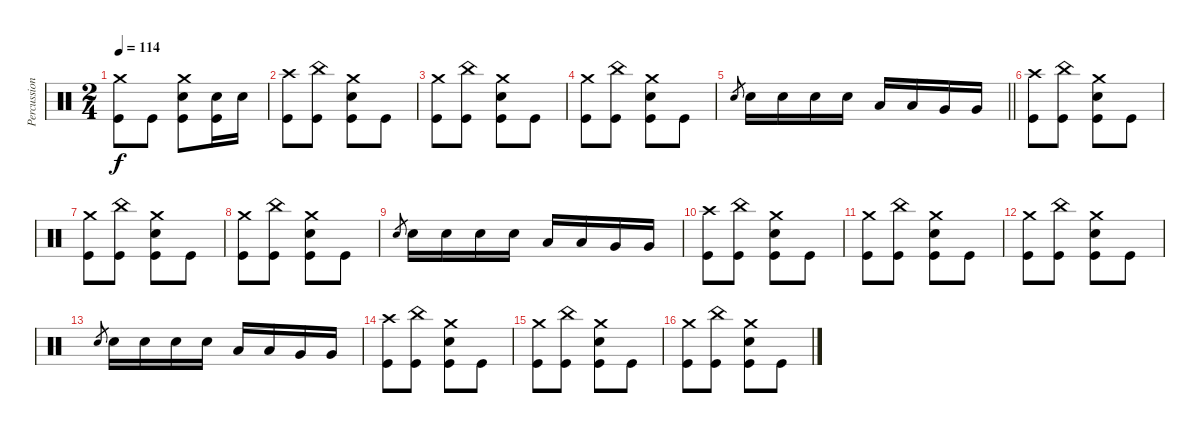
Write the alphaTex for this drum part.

\track ("Percussion" "Percussion") {instrument percussion}
\staff {score}
\articulation defaults
\ts (2 4)
\tempo 114
\clef neutral
\ks c
("Crash medium (hit)" "Kick (hit)").8{dy f} "Kick (hit)".8 ("Crash medium (hit)" "Electric Snare (hit)" "Kick (hit)").8 ("Electric Snare (hit)" "Kick (hit)").16 "Electric Snare (hit)".16 |
("Crash high (hit)" "Kick (hit)").8 ("China (hit)" "Kick (hit)").8 ("Crash medium (hit)" "Electric Snare (hit)" "Kick (hit)").8 "Kick (hit)".8 |
("Crash medium (hit)" "Kick (hit)").8 ("China (hit)" "Kick (hit)").8 ("Crash medium (hit)" "Electric Snare (hit)" "Kick (hit)").8 "Kick (hit)".8 |
("Crash medium (hit)" "Kick (hit)").8 ("China (hit)" "Kick (hit)").8 ("Crash medium (hit)" "Electric Snare (hit)" "Kick (hit)").8 "Kick (hit)".8 |
\barLineRight lightlight "Electric Snare (hit)".8{gr} "Electric Snare (hit)".16 "Electric Snare (hit)".16 "Electric Snare (hit)".16 "Electric Snare (hit)".16 "Low Tom (hit)".16 "Low Tom (hit)".16 "Very Low Tom (hit)".16 "Very Low Tom (hit)".16
|
\section ("" "")
("Crash high (hit)" "Kick (hit)").8 ("China (hit)" "Kick (hit)").8 ("Crash medium (hit)" "Electric Snare (hit)" "Kick (hit)").8 "Kick (hit)".8 |
("Crash medium (hit)" "Kick (hit)").8 ("China (hit)" "Kick (hit)").8 ("Crash medium (hit)" "Electric Snare (hit)" "Kick (hit)").8 "Kick (hit)".8 |
("Crash medium (hit)" "Kick (hit)").8 ("China (hit)" "Kick (hit)").8 ("Crash medium (hit)" "Electric Snare (hit)" "Kick (hit)").8 "Kick (hit)".8 |
"Electric Snare (hit)".8{gr} "Electric Snare (hit)".16 "Electric Snare (hit)".16 "Electric Snare (hit)".16 "Electric Snare (hit)".16 "Low Tom (hit)".16 "Low Tom (hit)".16 "Very Low Tom (hit)".16 "Very Low Tom (hit)".16 |
("Crash high (hit)" "Kick (hit)").8 ("China (hit)" "Kick (hit)").8 ("Crash medium (hit)" "Electric Snare (hit)" "Kick (hit)").8 "Kick (hit)".8 |
("Crash medium (hit)" "Kick (hit)").8 ("China (hit)" "Kick (hit)").8 ("Crash medium (hit)" "Electric Snare (hit)" "Kick (hit)").8 "Kick (hit)".8 |
("Crash medium (hit)" "Kick (hit)").8 ("China (hit)" "Kick (hit)").8 ("Crash medium (hit)" "Electric Snare (hit)" "Kick (hit)").8 "Kick (hit)".8 |
"Electric Snare (hit)".8{gr} "Electric Snare (hit)".16 "Electric Snare (hit)".16 "Electric Snare (hit)".16 "Electric Snare (hit)".16 "Low Tom (hit)".16 "Low Tom (hit)".16 "Very Low Tom (hit)".16 "Very Low Tom (hit)".16 |
("Crash high (hit)" "Kick (hit)").8 ("China (hit)" "Kick (hit)").8 ("Crash medium (hit)" "Electric Snare (hit)" "Kick (hit)").8 "Kick (hit)".8 |
("Crash medium (hit)" "Kick (hit)").8 ("China (hit)" "Kick (hit)").8 ("Crash medium (hit)" "Electric Snare (hit)" "Kick (hit)").8 "Kick (hit)".8 |
("Crash medium (hit)" "Kick (hit)").8 ("China (hit)" "Kick (hit)").8 ("Crash medium (hit)" "Electric Snare (hit)" "Kick (hit)").8 "Kick (hit)".8
